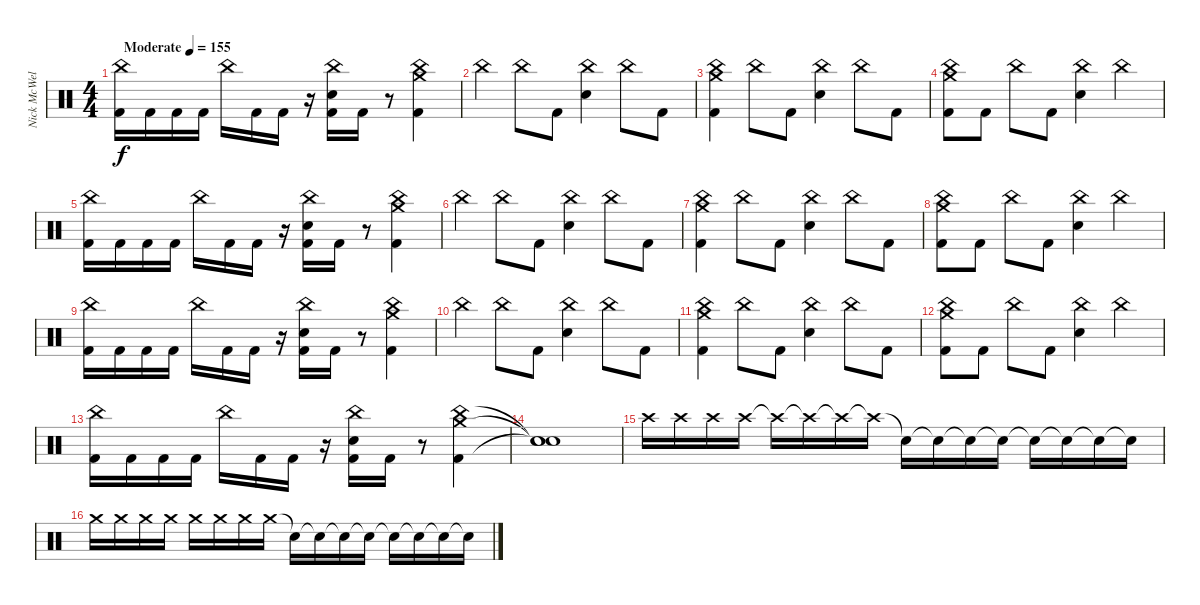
\track ("Nick McWells" "Nick McWel") {instrument percussion}
\staff {score}
\articulation defaults
\ts (4 4)
\tempo (155 "Moderate")
\clef neutral
\ks c
("China (hit)" "Kick (hit) 2").16{dy f} "Kick (hit) 2".16 "Kick (hit) 2".16 "Kick (hit) 2".16 "China (hit)".16 "Kick (hit) 2".16 "Kick (hit) 2".16 r.16 ("China (hit)" "Electric Snare (hit)" "Kick (hit) 2").16 "Kick (hit) 2".16 r.8 ("Crash medium (hit)" "China (hit)" "Kick (hit) 2").4 |
"China (hit)".4 "China (hit)".8 "Kick (hit) 2".8 ("China (hit)" "Electric Snare (hit)").4 "China (hit)".8 "Kick (hit) 2".8 |
("Crash medium (hit)" "China (hit)" "Kick (hit) 2").4 "China (hit)".8 "Kick (hit) 2".8 ("China (hit)" "Electric Snare (hit)").4 "China (hit)".8 "Kick (hit) 2".8 |
("Crash medium (hit)" "China (hit)" "Kick (hit) 2").8 "Kick (hit) 2".8 "China (hit)".8 "Kick (hit) 2".8 ("China (hit)" "Electric Snare (hit)").4 "China (hit)".4 |
("China (hit)" "Kick (hit) 2").16 "Kick (hit) 2".16 "Kick (hit) 2".16 "Kick (hit) 2".16 "China (hit)".16 "Kick (hit) 2".16 "Kick (hit) 2".16 r.16 ("China (hit)" "Electric Snare (hit)" "Kick (hit) 2").16 "Kick (hit) 2".16 r.8 ("Crash medium (hit)" "China (hit)" "Kick (hit) 2").4 |
"China (hit)".4 "China (hit)".8 "Kick (hit) 2".8 ("China (hit)" "Electric Snare (hit)").4 "China (hit)".8 "Kick (hit) 2".8 |
("Crash medium (hit)" "China (hit)" "Kick (hit) 2").4 "China (hit)".8 "Kick (hit) 2".8 ("China (hit)" "Electric Snare (hit)").4 "China (hit)".8 "Kick (hit) 2".8 |
("Crash medium (hit)" "China (hit)" "Kick (hit) 2").8 "Kick (hit) 2".8 "China (hit)".8 "Kick (hit) 2".8 ("China (hit)" "Electric Snare (hit)").4 "China (hit)".4 |
("China (hit)" "Kick (hit) 2").16 "Kick (hit) 2".16 "Kick (hit) 2".16 "Kick (hit) 2".16 "China (hit)".16 "Kick (hit) 2".16 "Kick (hit) 2".16 r.16 ("China (hit)" "Electric Snare (hit)" "Kick (hit) 2").16 "Kick (hit) 2".16 r.8 ("Crash medium (hit)" "China (hit)" "Kick (hit) 2").4 |
"China (hit)".4 "China (hit)".8 "Kick (hit) 2".8 ("China (hit)" "Electric Snare (hit)").4 "China (hit)".8 "Kick (hit) 2".8 |
("Crash medium (hit)" "China (hit)" "Kick (hit) 2").4 "China (hit)".8 "Kick (hit) 2".8 ("China (hit)" "Electric Snare (hit)").4 "China (hit)".8 "Kick (hit) 2".8 |
("Crash medium (hit)" "China (hit)" "Kick (hit) 2").8 "Kick (hit) 2".8 "China (hit)".8 "Kick (hit) 2".8 ("China (hit)" "Electric Snare (hit)").4 "China (hit)".4 |
("China (hit)" "Kick (hit) 2").16 "Kick (hit) 2".16 "Kick (hit) 2".16 "Kick (hit) 2".16 "China (hit)".16 "Kick (hit) 2".16 "Kick (hit) 2".16 r.16 ("China (hit)" "Electric Snare (hit)" "Kick (hit) 2").16 "Kick (hit) 2".16 r.8 ("Crash medium (hit)" "China (hit)" "Kick (hit) 2").4 |
("Snare (hit)"{t} "Snare (hit)"{t} "Snare (hit)"{t}).1 |
"Crash high (hit)".16 "Crash high (hit)".16 "Crash high (hit)".16 "Crash high (hit)".16 "Crash high (hit)"{t}.16 "Crash high (hit)"{t}.16 "Crash high (hit)"{t}.16 "Crash high (hit)"{t}.16 "Snare (hit)"{t}.16 "Snare (hit)"{t}.16 "Snare (hit)"{t}.16 "Snare (hit)"{t}.16 "Snare (hit)"{t}.16 "Snare (hit)"{t}.16 "Snare (hit)"{t}.16 "Snare (hit)"{t}.16 |
"Crash medium (hit)".16 "Crash medium (hit)".16 "Crash medium (hit)".16 "Crash medium (hit)".16 "Crash medium (hit)".16 "Crash medium (hit)".16 "Crash medium (hit)".16 "Crash medium (hit)".16 "Snare (hit)"{t}.16 "Snare (hit)"{t}.16 "Snare (hit)"{t}.16 "Snare (hit)"{t}.16 "Snare (hit)"{t}.16 "Snare (hit)"{t}.16 "Snare (hit)"{t}.16 "Snare (hit)"{t}.16
